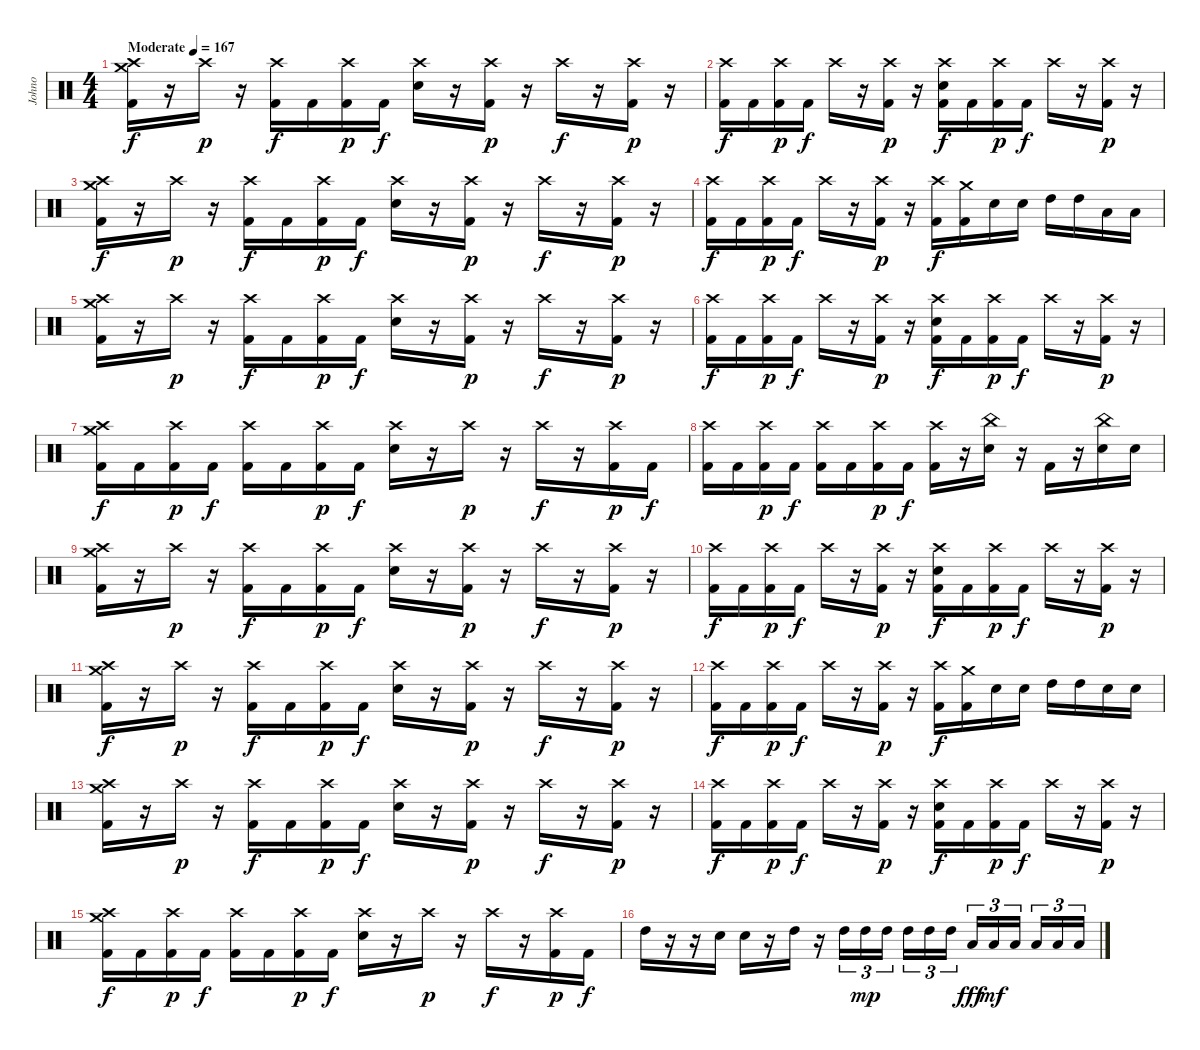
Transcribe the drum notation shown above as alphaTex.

\track ("Johno" "Johno") {instrument percussion}
\staff {score}
\articulation defaults
\ts (4 4)
\tempo (167 "Moderate")
\clef neutral
\ks c
("Crash medium (hit)" "Crash high (hit)" "Kick (hit) 2").16{dy f} r.16 "Crash high (hit)".16{dy p} r.16 ("Crash high (hit)" "Kick (hit) 2").16{dy f} "Kick (hit) 2".16 ("Crash high (hit)" "Kick (hit) 2").16{dy p} "Kick (hit) 2".16{dy f} ("Crash high (hit)" "Electric Snare (hit)").16 r.16 ("Crash high (hit)" "Kick (hit) 2").16{dy p} r.16 "Crash high (hit)".16{dy f} r.16 ("Crash high (hit)" "Kick (hit) 2").16{dy p} r.16 |
("Crash high (hit)" "Kick (hit) 2").16{dy f} "Kick (hit) 2".16 ("Crash high (hit)" "Kick (hit) 2").16{dy p} "Kick (hit) 2".16{dy f} "Crash high (hit)".16 r.16 ("Crash high (hit)" "Kick (hit) 2").16{dy p} r.16 ("Crash high (hit)" "Electric Snare (hit)" "Kick (hit) 2").16{dy f} "Kick (hit) 2".16 ("Crash high (hit)" "Kick (hit) 2").16{dy p} "Kick (hit) 2".16{dy f} "Crash high (hit)".16 r.16 ("Crash high (hit)" "Kick (hit) 2").16{dy p} r.16 |
("Crash medium (hit)" "Crash high (hit)" "Kick (hit) 2").16{dy f} r.16 "Crash high (hit)".16{dy p} r.16 ("Crash high (hit)" "Kick (hit) 2").16{dy f} "Kick (hit) 2".16 ("Crash high (hit)" "Kick (hit) 2").16{dy p} "Kick (hit) 2".16{dy f} ("Crash high (hit)" "Electric Snare (hit)").16 r.16 ("Crash high (hit)" "Kick (hit) 2").16{dy p} r.16 "Crash high (hit)".16{dy f} r.16 ("Crash high (hit)" "Kick (hit) 2").16{dy p} r.16 |
("Crash high (hit)" "Kick (hit) 2").16{dy f} "Kick (hit) 2".16 ("Crash high (hit)" "Kick (hit) 2").16{dy p} "Kick (hit) 2".16{dy f} "Crash high (hit)".16 r.16 ("Crash high (hit)" "Kick (hit) 2").16{dy p} r.16 ("Crash high (hit)" "Kick (hit) 2").16{dy f} ("Crash medium (hit)" "Kick (hit) 2").16 "Electric Snare (hit)".16 "Electric Snare (hit)".16 "High Tom (hit)".16 "High Tom (hit)".16 "Low Floor Tom (hit)".16 "Low Floor Tom (hit)".16 |
("Crash medium (hit)" "Crash high (hit)" "Kick (hit) 2").16 r.16 "Crash high (hit)".16{dy p} r.16 ("Crash high (hit)" "Kick (hit) 2").16{dy f} "Kick (hit) 2".16 ("Crash high (hit)" "Kick (hit) 2").16{dy p} "Kick (hit) 2".16{dy f} ("Crash high (hit)" "Electric Snare (hit)").16 r.16 ("Crash high (hit)" "Kick (hit) 2").16{dy p} r.16 "Crash high (hit)".16{dy f} r.16 ("Crash high (hit)" "Kick (hit) 2").16{dy p} r.16 |
("Crash high (hit)" "Kick (hit) 2").16{dy f} "Kick (hit) 2".16 ("Crash high (hit)" "Kick (hit) 2").16{dy p} "Kick (hit) 2".16{dy f} "Crash high (hit)".16 r.16 ("Crash high (hit)" "Kick (hit) 2").16{dy p} r.16 ("Crash high (hit)" "Electric Snare (hit)" "Kick (hit) 2").16{dy f} "Kick (hit) 2".16 ("Crash high (hit)" "Kick (hit) 2").16{dy p} "Kick (hit) 2".16{dy f} "Crash high (hit)".16 r.16 ("Crash high (hit)" "Kick (hit) 2").16{dy p} r.16 |
("Crash medium (hit)" "Crash high (hit)" "Kick (hit) 2").16{dy f} "Kick (hit) 2".16 ("Crash high (hit)" "Kick (hit) 2").16{dy p} "Kick (hit) 2".16{dy f} ("Crash high (hit)" "Kick (hit) 2").16 "Kick (hit) 2".16 ("Crash high (hit)" "Kick (hit) 2").16{dy p} "Kick (hit) 2".16{dy f} ("Crash high (hit)" "Electric Snare (hit)").16 r.16 "Crash high (hit)".16{dy p} r.16 "Crash high (hit)".16{dy f} r.16 ("Crash high (hit)" "Kick (hit) 2").16{dy p} "Kick (hit) 2".16{dy f} |
("Crash high (hit)" "Kick (hit) 2").16 "Kick (hit) 2".16 ("Crash high (hit)" "Kick (hit) 2").16{dy p} "Kick (hit) 2".16{dy f} ("Crash high (hit)" "Kick (hit) 2").16 "Kick (hit) 2".16 ("Crash high (hit)" "Kick (hit) 2").16{dy p} "Kick (hit) 2".16{dy f} ("Crash high (hit)" "Kick (hit) 2").16 r.16 ("China (hit)" "Electric Snare (hit)").16 r.16 "Kick (hit) 2".16 r.16 ("China (hit)" "Electric Snare (hit)").16 "Electric Snare (hit)".16 |
("Crash medium (hit)" "Crash high (hit)" "Kick (hit) 2").16 r.16 "Crash high (hit)".16{dy p} r.16 ("Crash high (hit)" "Kick (hit) 2").16{dy f} "Kick (hit) 2".16 ("Crash high (hit)" "Kick (hit) 2").16{dy p} "Kick (hit) 2".16{dy f} ("Crash high (hit)" "Electric Snare (hit)").16 r.16 ("Crash high (hit)" "Kick (hit) 2").16{dy p} r.16 "Crash high (hit)".16{dy f} r.16 ("Crash high (hit)" "Kick (hit) 2").16{dy p} r.16 |
("Crash high (hit)" "Kick (hit) 2").16{dy f} "Kick (hit) 2".16 ("Crash high (hit)" "Kick (hit) 2").16{dy p} "Kick (hit) 2".16{dy f} "Crash high (hit)".16 r.16 ("Crash high (hit)" "Kick (hit) 2").16{dy p} r.16 ("Crash high (hit)" "Electric Snare (hit)" "Kick (hit) 2").16{dy f} "Kick (hit) 2".16 ("Crash high (hit)" "Kick (hit) 2").16{dy p} "Kick (hit) 2".16{dy f} "Crash high (hit)".16 r.16 ("Crash high (hit)" "Kick (hit) 2").16{dy p} r.16 |
("Crash medium (hit)" "Crash high (hit)" "Kick (hit) 2").16{dy f} r.16 "Crash high (hit)".16{dy p} r.16 ("Crash high (hit)" "Kick (hit) 2").16{dy f} "Kick (hit) 2".16 ("Crash high (hit)" "Kick (hit) 2").16{dy p} "Kick (hit) 2".16{dy f} ("Crash high (hit)" "Electric Snare (hit)").16 r.16 ("Crash high (hit)" "Kick (hit) 2").16{dy p} r.16 "Crash high (hit)".16{dy f} r.16 ("Crash high (hit)" "Kick (hit) 2").16{dy p} r.16 |
("Crash high (hit)" "Kick (hit) 2").16{dy f} "Kick (hit) 2".16 ("Crash high (hit)" "Kick (hit) 2").16{dy p} "Kick (hit) 2".16{dy f} "Crash high (hit)".16 r.16 ("Crash high (hit)" "Kick (hit) 2").16{dy p} r.16 ("Crash high (hit)" "Kick (hit) 2").16{dy f} ("Crash medium (hit)" "Kick (hit) 2").16 "Electric Snare (hit)".16 "Electric Snare (hit)".16 "High Tom (hit)".16 "High Tom (hit)".16 "Electric Snare (hit)".16 "Electric Snare (hit)".16 |
("Crash medium (hit)" "Crash high (hit)" "Kick (hit) 2").16 r.16 "Crash high (hit)".16{dy p} r.16 ("Crash high (hit)" "Kick (hit) 2").16{dy f} "Kick (hit) 2".16 ("Crash high (hit)" "Kick (hit) 2").16{dy p} "Kick (hit) 2".16{dy f} ("Crash high (hit)" "Electric Snare (hit)").16 r.16 ("Crash high (hit)" "Kick (hit) 2").16{dy p} r.16 "Crash high (hit)".16{dy f} r.16 ("Crash high (hit)" "Kick (hit) 2").16{dy p} r.16 |
("Crash high (hit)" "Kick (hit) 2").16{dy f} "Kick (hit) 2".16 ("Crash high (hit)" "Kick (hit) 2").16{dy p} "Kick (hit) 2".16{dy f} "Crash high (hit)".16 r.16 ("Crash high (hit)" "Kick (hit) 2").16{dy p} r.16 ("Crash high (hit)" "Electric Snare (hit)" "Kick (hit) 2").16{dy f} "Kick (hit) 2".16 ("Crash high (hit)" "Kick (hit) 2").16{dy p} "Kick (hit) 2".16{dy f} "Crash high (hit)".16 r.16 ("Crash high (hit)" "Kick (hit) 2").16{dy p} r.16 |
("Crash medium (hit)" "Crash high (hit)" "Kick (hit) 2").16{dy f} "Kick (hit) 2".16 ("Crash high (hit)" "Kick (hit) 2").16{dy p} "Kick (hit) 2".16{dy f} ("Crash high (hit)" "Kick (hit) 2").16 "Kick (hit) 2".16 ("Crash high (hit)" "Kick (hit) 2").16{dy p} "Kick (hit) 2".16{dy f} ("Crash high (hit)" "Electric Snare (hit)").16 r.16 "Crash high (hit)".16{dy p} r.16 "Crash high (hit)".16{dy f} r.16 ("Crash high (hit)" "Kick (hit) 2").16{dy p} "Kick (hit) 2".16{dy f} |
"High Tom (hit)".16 r.16 r.16 "Electric Snare (hit)".16 "Electric Snare (hit)".16 r.16 "High Tom (hit)".16 r.16 "High Tom (hit)".16{tu (3 2)} "High Tom (hit)".16{tu (3 2) dy mp} "High Tom (hit)".16{tu (3 2) beam splitsecondary} "High Tom (hit)".16{tu (3 2)} "High Tom (hit)".16{tu (3 2)} "High Tom (hit)".16{tu (3 2)} "Low Floor Tom (hit)".16{tu (3 2) dy fff} "Low Floor Tom (hit)".16{tu (3 2) dy mf} "Low Floor Tom (hit)".16{tu (3 2) beam splitsecondary} "Low Floor Tom (hit)".16{tu (3 2)} "Low Floor Tom (hit)".16{tu (3 2)} "Low Floor Tom (hit)".16{tu (3 2)}
